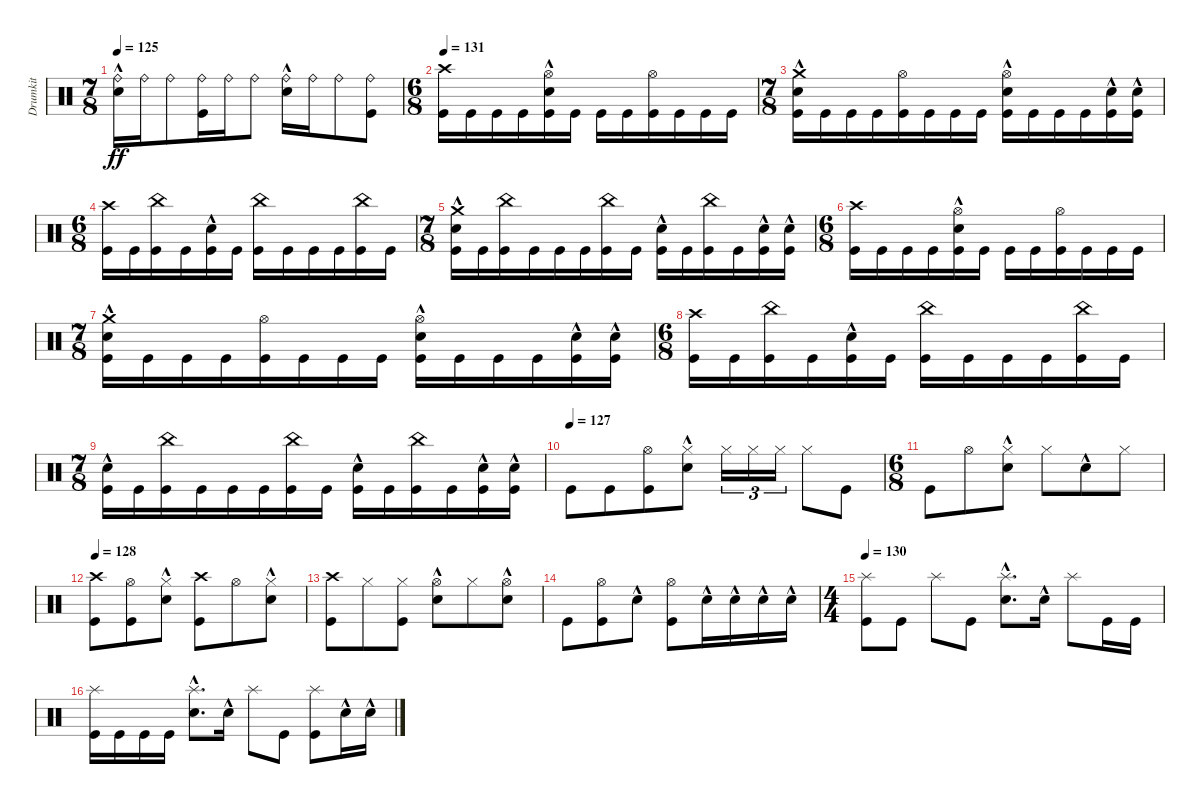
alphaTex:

\track ("Drumkit" "Drumkit") {instrument percussion}
\staff {score}
\articulation defaults
\ts (7 8)
\tempo 125
\clef neutral
\ks aminor
("Snare (hit) 2"{hac} "Ride (bell)").16{dy ff} "Ride (bell)".16 "Ride (bell)".8 ("Kick (hit)" "Ride (bell)").16 "Ride (bell)".16 "Ride (bell)".8 ("Snare (hit) 2"{hac} "Ride (bell)").16 "Ride (bell)".16 "Ride (bell)".8 ("Kick (hit)" "Ride (bell)").8 |
\ts (6 8)
\tempo 131
("Kick (hit)" "Crash high (hit)").16 "Kick (hit)".16 "Kick (hit)".16 "Kick (hit)".16 ("Kick (hit)" "Snare (hit) 2"{hac} "Hi-Hat (open)").16 "Kick (hit)".16 "Kick (hit)".16 "Kick (hit)".16 ("Kick (hit)" "Hi-Hat (open)").16 "Kick (hit)".16 "Kick (hit)".16 "Kick (hit)".16 |
\ts (7 8)
("Kick (hit)" "Snare (hit) 2"{hac} "Crash medium (hit)").16 "Kick (hit)".16 "Kick (hit)".16 "Kick (hit)".16 ("Kick (hit)" "Hi-Hat (open)").16 "Kick (hit)".16 "Kick (hit)".16 "Kick (hit)".16 ("Kick (hit)" "Snare (hit) 2"{hac} "Hi-Hat (open)").16 "Kick (hit)".16 "Kick (hit)".16 "Kick (hit)".16 ("Kick (hit)" "Snare (hit) 2"{hac}).16 ("Kick (hit)" "Snare (hit) 2"{hac}).16 |
\ts (6 8)
("Kick (hit)" "Crash high (hit)").16 "Kick (hit)".16 ("Kick (hit)" "China (hit)").16 "Kick (hit)".16 ("Kick (hit)" "Snare (hit) 2"{hac}).16 "Kick (hit)".16 ("Kick (hit)" "China (hit)").16 "Kick (hit)".16 "Kick (hit)".16 "Kick (hit)".16 ("Kick (hit)" "China (hit)").16 "Kick (hit)".16 |
\ts (7 8)
("Kick (hit)" "Snare (hit) 2"{hac} "Crash medium (hit)").16 "Kick (hit)".16 ("Kick (hit)" "China (hit)").16 "Kick (hit)".16 "Kick (hit)".16 "Kick (hit)".16 ("Kick (hit)" "China (hit)").16 "Kick (hit)".16 ("Kick (hit)" "Snare (hit) 2"{hac}).16 "Kick (hit)".16 ("Kick (hit)" "China (hit)").16 "Kick (hit)".16 ("Kick (hit)" "Snare (hit) 2"{hac}).16 ("Kick (hit)" "Snare (hit) 2"{hac}).16 |
\ts (6 8)
("Kick (hit)" "Crash high (hit)").16 "Kick (hit)".16 "Kick (hit)".16 "Kick (hit)".16 ("Kick (hit)" "Snare (hit) 2"{hac} "Hi-Hat (open)").16 "Kick (hit)".16 "Kick (hit)".16 "Kick (hit)".16 ("Kick (hit)" "Hi-Hat (open)").16 "Kick (hit)".16 "Kick (hit)".16 "Kick (hit)".16 |
\ts (7 8)
("Kick (hit)" "Snare (hit) 2"{hac} "Crash medium (hit)").16 "Kick (hit)".16 "Kick (hit)".16 "Kick (hit)".16 ("Kick (hit)" "Hi-Hat (open)").16 "Kick (hit)".16 "Kick (hit)".16 "Kick (hit)".16 ("Kick (hit)" "Snare (hit) 2"{hac} "Hi-Hat (open)").16 "Kick (hit)".16 "Kick (hit)".16 "Kick (hit)".16 ("Kick (hit)" "Snare (hit) 2"{hac}).16 ("Kick (hit)" "Snare (hit) 2"{hac}).16 |
\ts (6 8)
("Kick (hit)" "Crash high (hit)").16 "Kick (hit)".16 ("Kick (hit)" "China (hit)").16 "Kick (hit)".16 ("Kick (hit)" "Snare (hit) 2"{hac}).16 "Kick (hit)".16 ("Kick (hit)" "China (hit)").16 "Kick (hit)".16 "Kick (hit)".16 "Kick (hit)".16 ("Kick (hit)" "China (hit)").16 "Kick (hit)".16 |
\ts (7 8)
("Kick (hit)" "Snare (hit) 2"{hac}).16 "Kick (hit)".16 ("Kick (hit)" "China (hit)").16 "Kick (hit)".16 "Kick (hit)".16 "Kick (hit)".16 ("Kick (hit)" "China (hit)").16 "Kick (hit)".16 ("Kick (hit)" "Snare (hit) 2"{hac}).16 "Kick (hit)".16 ("Kick (hit)" "China (hit)").16 "Kick (hit)".16 ("Kick (hit)" "Snare (hit) 2"{hac}).16 ("Kick (hit)" "Snare (hit) 2"{hac}).16 |
\tempo (127)
"Kick (hit)".8 "Kick (hit)".8 ("Hi-Hat (open)" "Kick (hit)").8 ("Snare (hit) 2"{hac} "Hi-Hat (closed)").8 "Hi-Hat (closed)".16{tu (3 2)} "Hi-Hat (closed)".16{tu (3 2)} "Hi-Hat (closed)".16{tu (3 2)} "Hi-Hat (closed)".8 "Kick (hit)".8 |
\ts (6 8)
"Kick (hit)".8 "Hi-Hat (open)".8 ("Snare (hit) 2"{hac} "Hi-Hat (closed)").8 "Hi-Hat (closed)".8 "Snare (hit) 2"{hac}.8 "Hi-Hat (closed)".8 |
\tempo 128
("Crash high (hit)" "Kick (hit)").8 ("Hi-Hat (open)" "Kick (hit)").8 ("Snare (hit) 2"{hac} "Hi-Hat (closed)").8 ("Crash high (hit)" "Kick (hit)").8 "Hi-Hat (open)".8 ("Snare (hit) 2"{hac} "Hi-Hat (closed)").8 |
("Crash high (hit)" "Kick (hit)").8 "Hi-Hat (closed)".8 ("Hi-Hat (closed)" "Kick (hit)").8 ("Hi-Hat (open)" "Snare (hit) 2"{hac}).8 "Hi-Hat (closed)".8 ("Hi-Hat (open)" "Snare (hit) 2"{hac}).8 |
"Kick (hit)".8 ("Hi-Hat (open)" "Kick (hit)").8 "Snare (hit) 2"{hac}.8 ("Hi-Hat (open)" "Kick (hit)").8 "Snare (hit) 2"{hac}.16 "Snare (hit) 2"{hac}.16 "Snare (hit) 2"{hac}.16 "Snare (hit) 2"{hac}.16 |
\ts (4 4)
\tempo 130
("Kick (hit)" "Splash (hit)").8 "Kick (hit)".8 "Splash (hit)".8 "Kick (hit)".8 ("Snare (hit) 2"{hac} "Splash (hit)").8{d} "Snare (hit) 2"{hac}.16 "Splash (hit)".8 "Kick (hit)".16 "Kick (hit)".16 |
("Kick (hit)" "Splash (hit)").16 "Kick (hit)".16 "Kick (hit)".16 "Kick (hit)".16 ("Snare (hit) 2"{hac} "Splash (hit)").8{d} "Snare (hit) 2"{hac}.16 "Splash (hit)".8 "Kick (hit)".8 ("Kick (hit)" "Splash (hit)").8 "Snare (hit) 2"{hac}.16 "Snare (hit) 2"{hac}.16
